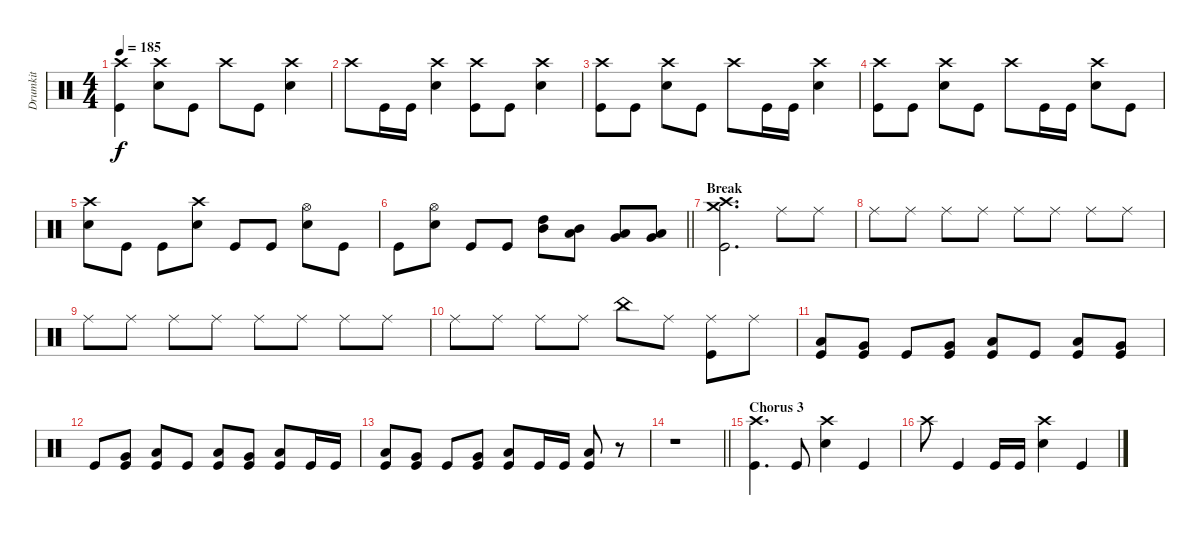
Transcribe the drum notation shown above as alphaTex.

\track ("Drumkit" "Drumkit") {instrument percussion}
\staff {score}
\articulation defaults
\ts (4 4)
\tempo 185
\clef neutral
\ks c
("Crash high (hit)" "Kick (hit)").4{dy f} ("Snare (hit) 2" "Crash high (hit)").8 "Kick (hit)".8 "Crash high (hit)".8 "Kick (hit)".8 ("Snare (hit) 2" "Crash high (hit)").4 |
"Crash high (hit)".8 "Kick (hit)".16 "Kick (hit)".16 ("Snare (hit) 2" "Crash high (hit)").4 ("Crash high (hit)" "Kick (hit)").8 "Kick (hit)".8 ("Snare (hit) 2" "Crash high (hit)").4 |
("Crash high (hit)" "Kick (hit)").8 "Kick (hit)".8 ("Snare (hit) 2" "Crash high (hit)").8 "Kick (hit)".8 "Crash high (hit)".8 "Kick (hit)".16 "Kick (hit)".16 ("Snare (hit) 2" "Crash high (hit)").4 |
("Crash high (hit)" "Kick (hit)").8 "Kick (hit)".8 ("Snare (hit) 2" "Crash high (hit)").8 "Kick (hit)".8 "Crash high (hit)".8 "Kick (hit)".16 "Kick (hit)".16 ("Snare (hit) 2" "Crash high (hit)").8 "Kick (hit)".8 |
("Crash high (hit)" "Snare (hit) 2").8 "Kick (hit)".8 "Kick (hit)".8 ("Crash high (hit)" "Snare (hit) 2").8 "Kick (hit)".8 "Kick (hit)".8 ("Snare (hit) 2" "Hi-Hat (open)").8 "Kick (hit)".8 |
\barLineRight lightlight "Kick (hit)".8
("Hi-Hat (open)" "Snare (hit) 2").8 "Kick (hit)".8 "Kick (hit)".8 ("Mid Tom (hit)" "High Tom (hit)").8 ("Low Tom (hit)" "Mid Tom (hit)").8 ("Very Low Tom (hit)" "Low Tom (hit)").8 ("Low Floor Tom (hit)" "Very Low Tom (hit)").8 |
\section ("" "Break")
("Crash medium (hit)" "Crash high (hit)" "Kick (hit)").2{d} "Ride (middle)".8 "Ride (middle)".8 |
"Ride (middle)".8 "Ride (middle)".8 "Ride (middle)".8 "Ride (middle)".8 "Ride (middle)".8 "Ride (middle)".8 "Ride (middle)".8 "Ride (middle)".8 |
"Ride (middle)".8 "Ride (middle)".8 "Ride (middle)".8 "Ride (middle)".8 "Ride (middle)".8 "Ride (middle)".8 "Ride (middle)".8 "Ride (middle)".8 |
"Ride (middle)".8 "Ride (middle)".8 "Ride (middle)".8 "Ride (middle)".8 "China (hit)".8 "Ride (middle)".8 ("Ride (middle)" "Kick (hit)").8 "Ride (middle)".8 |
("Low Tom (hit)" "Kick (hit)").8 ("Very Low Tom (hit)" "Kick (hit)").8 "Kick (hit)".8 ("Very Low Tom (hit)" "Kick (hit)").8 ("Low Floor Tom (hit)" "Kick (hit)").8 "Kick (hit)".8 ("Low Tom (hit)" "Kick (hit)").8 ("Very Low Tom (hit)" "Kick (hit)").8 |
"Kick (hit)".8 ("Very Low Tom (hit)" "Kick (hit)").8 ("Low Floor Tom (hit)" "Kick (hit)").8 "Kick (hit)".8 ("Low Tom (hit)" "Kick (hit)").8 ("Very Low Tom (hit)" "Kick (hit)").8 ("Low Floor Tom (hit)" "Kick (hit)").8 "Kick (hit)".16 "Kick (hit)".16 |
("Low Tom (hit)" "Kick (hit)").8 ("Very Low Tom (hit)" "Kick (hit)").8 "Kick (hit)".8 ("Very Low Tom (hit)" "Kick (hit)").8 ("Low Floor Tom (hit)" "Kick (hit)").8 "Kick (hit)".16 "Kick (hit)".16 ("Low Tom (hit)" "Kick (hit)").8 r.8 |
\barLineRight lightlight
r.1 |
\section ("" "Chorus 3")
("Crash high (hit)" "Kick (hit)").4{d} "Kick (hit)".8 ("Snare (hit) 2" "Crash high (hit)").4 "Kick (hit)".4 |
"Crash high (hit)".8 "Kick (hit)".4 "Kick (hit)".16 "Kick (hit)".16 ("Snare (hit) 2" "Crash high (hit)").4 "Kick (hit)".4
